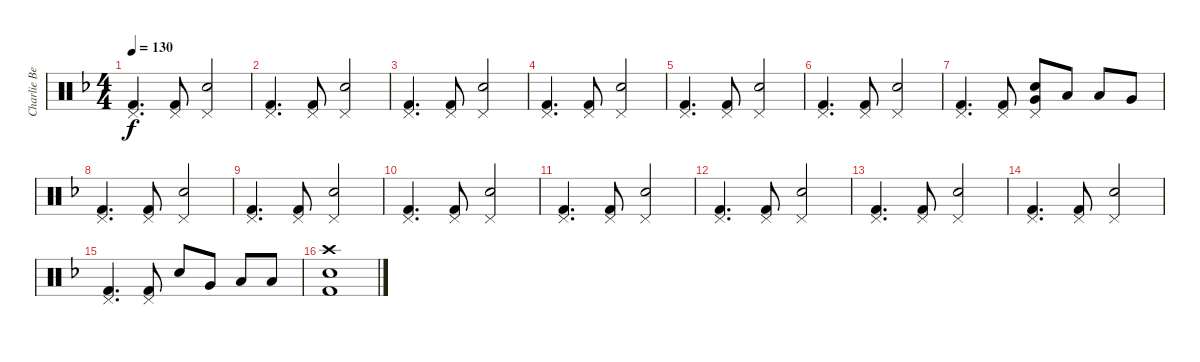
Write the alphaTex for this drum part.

\track ("Charlie Benante" "Charlie Be") {instrument percussion}
\staff {score}
\articulation defaults
\ts (4 4)
\tempo 130
\clef neutral
\ks f
("Pedal Hi-Hat (hit)" "Kick (hit) 2").4{d dy f} ("Pedal Hi-Hat (hit)" "Kick (hit) 2").8 ("Pedal Hi-Hat (hit)" "Electric Snare (hit)").2 |
("Pedal Hi-Hat (hit)" "Kick (hit) 2").4{d} ("Pedal Hi-Hat (hit)" "Kick (hit) 2").8 ("Pedal Hi-Hat (hit)" "Electric Snare (hit)").2 |
("Pedal Hi-Hat (hit)" "Kick (hit) 2").4{d} ("Pedal Hi-Hat (hit)" "Kick (hit) 2").8 ("Pedal Hi-Hat (hit)" "Electric Snare (hit)").2 |
("Pedal Hi-Hat (hit)" "Kick (hit) 2").4{d} ("Pedal Hi-Hat (hit)" "Kick (hit) 2").8 ("Pedal Hi-Hat (hit)" "Electric Snare (hit)").2 |
("Pedal Hi-Hat (hit)" "Kick (hit) 2").4{d} ("Pedal Hi-Hat (hit)" "Kick (hit) 2").8 ("Pedal Hi-Hat (hit)" "Electric Snare (hit)").2 |
("Pedal Hi-Hat (hit)" "Kick (hit) 2").4{d} ("Pedal Hi-Hat (hit)" "Kick (hit) 2").8 ("Pedal Hi-Hat (hit)" "Electric Snare (hit)").2 |
("Pedal Hi-Hat (hit)" "Kick (hit) 2").4{d} ("Pedal Hi-Hat (hit)" "Kick (hit) 2").8 ("Pedal Hi-Hat (hit)" "Electric Snare (hit)" "Very Low Tom (hit)").8 "Low Floor Tom (hit)".8 "Low Tom (hit)".8 "Very Low Tom (hit)".8 |
("Pedal Hi-Hat (hit)" "Kick (hit) 2").4{d} ("Pedal Hi-Hat (hit)" "Kick (hit) 2").8 ("Pedal Hi-Hat (hit)" "Electric Snare (hit)").2 |
("Pedal Hi-Hat (hit)" "Kick (hit) 2").4{d} ("Pedal Hi-Hat (hit)" "Kick (hit) 2").8 ("Pedal Hi-Hat (hit)" "Electric Snare (hit)").2 |
("Pedal Hi-Hat (hit)" "Kick (hit) 2").4{d} ("Pedal Hi-Hat (hit)" "Kick (hit) 2").8 ("Pedal Hi-Hat (hit)" "Electric Snare (hit)").2 |
("Pedal Hi-Hat (hit)" "Kick (hit) 2").4{d} ("Pedal Hi-Hat (hit)" "Kick (hit) 2").8 ("Pedal Hi-Hat (hit)" "Electric Snare (hit)").2 |
("Pedal Hi-Hat (hit)" "Kick (hit) 2").4{d} ("Pedal Hi-Hat (hit)" "Kick (hit) 2").8 ("Pedal Hi-Hat (hit)" "Electric Snare (hit)").2 |
("Pedal Hi-Hat (hit)" "Kick (hit) 2").4{d} ("Pedal Hi-Hat (hit)" "Kick (hit) 2").8 ("Pedal Hi-Hat (hit)" "Electric Snare (hit)").2 |
("Pedal Hi-Hat (hit)" "Kick (hit) 2").4{d} ("Pedal Hi-Hat (hit)" "Kick (hit) 2").8 ("Pedal Hi-Hat (hit)" "Electric Snare (hit)").2 |
("Pedal Hi-Hat (hit)" "Kick (hit) 2").4{d} ("Pedal Hi-Hat (hit)" "Kick (hit) 2").8 "Electric Snare (hit)".8 "Very Low Tom (hit)".8 "Low Floor Tom (hit)".8 "Low Tom (hit)".8 |
("Crash high (hit)" "Electric Snare (hit)" "Kick (hit) 2").1
